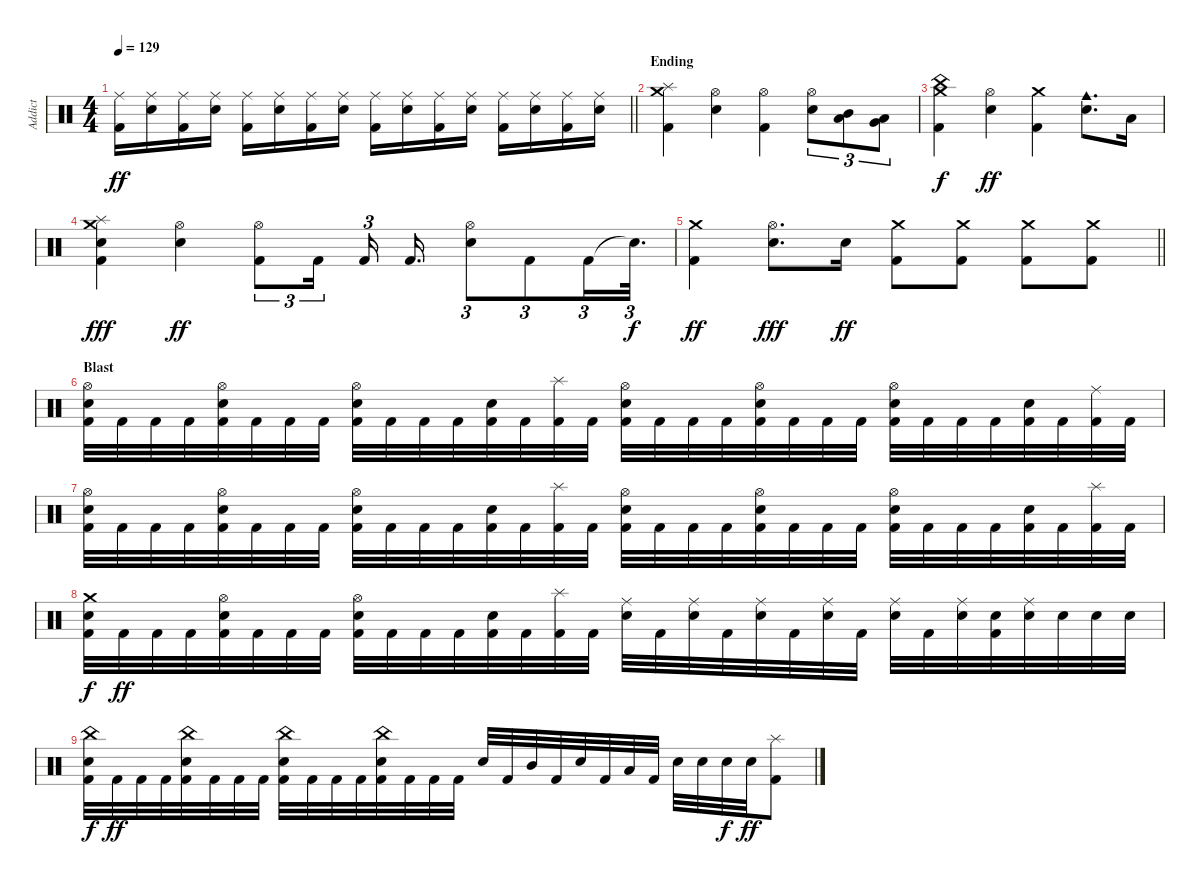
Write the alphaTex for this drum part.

\track ("Addict" "Addict") {instrument percussion}
\staff {score}
\articulation defaults
\ts (4 4)
\tempo 129
\clef neutral
\barLineRight lightlight
\ks c
("Kick (hit) 2" "Ride (middle)").16{dy ff} ("Snare (hit) 2" "Ride (middle)").16 ("Kick (hit) 2" "Ride (middle)").16 ("Snare (hit) 2" "Ride (middle)").16 ("Kick (hit) 2" "Ride (middle)").16 ("Snare (hit) 2" "Ride (middle)").16 ("Kick (hit) 2" "Ride (middle)").16 ("Snare (hit) 2" "Ride (middle)").16 ("Kick (hit) 2" "Ride (middle)").16 ("Snare (hit) 2" "Ride (middle)").16 ("Kick (hit) 2" "Ride (middle)").16 ("Snare (hit) 2" "Ride (middle)").16 ("Kick (hit) 2" "Ride (middle)").16 ("Snare (hit) 2" "Ride (middle)").16 ("Kick (hit) 2" "Ride (middle)").16 ("Snare (hit) 2" "Ride (middle)").16 |
\section ("" "Ending")
("Kick (hit) 2" "Crash medium (hit)" "Splash (hit)").4 ("Snare (hit) 2" "Hi-Hat (open)").4 ("Kick (hit) 2" "Hi-Hat (open)").4 ("Snare (hit) 2" "Hi-Hat (open)").8{tu (3 2)} ("Mid Tom (hit)" "Low Tom (hit)").8{tu (3 2)} ("Low Tom (hit)" "Very Low Tom (hit)").8{tu (3 2)} |
("Kick (hit) 2" "China (hit)" "Crash medium (hit)").4{dy f} ("Snare (hit) 2" "Hi-Hat (open)").4{dy ff} ("Kick (hit) 2" "Crash medium (hit)").4 ("Snare (hit) 2" "Cowbell medium (hit)").8{d} "Low Tom (hit)".16 |
("Kick (hit) 2" "Crash medium (hit)" "Splash (hit)" "Snare (hit)").4{dy fff} ("Snare (hit) 2" "Hi-Hat (open)").4{dy ff} ("Kick (hit) 2" "Hi-Hat (open)").8{tu (3 2)} "Kick (hit) 2".16{tu (3 2) beam splitsecondary} "Kick (hit) 2".16{tu (3 2)} "Kick (hit) 2".16{d} ("Snare (hit) 2" "Hi-Hat (open)").8{tu (3 2)} "Kick (hit) 2".8{tu (3 2)} "Kick (hit) 2".16{tu (3 2)} "Snare (hit)"{t}.32{d tu (3 2) dy f} |
\barLineRight lightlight
("Kick (hit) 2" "Crash medium (hit)").4{dy ff} ("Snare (hit) 2" "Hi-Hat (open)").8{d dy fff} "Snare (hit) 2".16{dy ff} ("Kick (hit) 2" "Crash medium (hit)").8 ("Kick (hit) 2" "Crash medium (hit)").8 ("Kick (hit) 2" "Crash medium (hit)").8 ("Kick (hit) 2" "Crash medium (hit)").8 |
\section ("" "Blast")
("Kick (hit) 2" "Snare (hit) 2" "Hi-Hat (open)").32 "Kick (hit) 2".32 "Kick (hit) 2".32 "Kick (hit) 2".32 ("Kick (hit) 2" "Snare (hit) 2" "Hi-Hat (open)").32 "Kick (hit) 2".32 "Kick (hit) 2".32 "Kick (hit) 2".32 ("Kick (hit) 2" "Snare (hit) 2" "Hi-Hat (open)").32 "Kick (hit) 2".32 "Kick (hit) 2".32 "Kick (hit) 2".32 ("Kick (hit) 2" "Snare (hit) 2").32 "Kick (hit) 2".32 ("Kick (hit) 2" "Splash (hit)").32 "Kick (hit) 2".32 ("Kick (hit) 2" "Snare (hit) 2" "Hi-Hat (open)").32 "Kick (hit) 2".32 "Kick (hit) 2".32 "Kick (hit) 2".32 ("Kick (hit) 2" "Snare (hit) 2" "Hi-Hat (open)").32 "Kick (hit) 2".32 "Kick (hit) 2".32 "Kick (hit) 2".32 ("Kick (hit) 2" "Snare (hit) 2" "Hi-Hat (open)").32 "Kick (hit) 2".32 "Kick (hit) 2".32 "Kick (hit) 2".32 ("Kick (hit) 2" "Snare (hit) 2").32 "Kick (hit) 2".32 ("Kick (hit) 2" "Ride (middle)").32 "Kick (hit) 2".32 |
("Kick (hit) 2" "Snare (hit) 2" "Hi-Hat (open)").32 "Kick (hit) 2".32 "Kick (hit) 2".32 "Kick (hit) 2".32 ("Kick (hit) 2" "Snare (hit) 2" "Hi-Hat (open)").32 "Kick (hit) 2".32 "Kick (hit) 2".32 "Kick (hit) 2".32 ("Kick (hit) 2" "Snare (hit) 2" "Hi-Hat (open)").32 "Kick (hit) 2".32 "Kick (hit) 2".32 "Kick (hit) 2".32 ("Kick (hit) 2" "Snare (hit) 2").32 "Kick (hit) 2".32 ("Kick (hit) 2" "Splash (hit)").32 "Kick (hit) 2".32 ("Kick (hit) 2" "Snare (hit) 2" "Hi-Hat (open)").32 "Kick (hit) 2".32 "Kick (hit) 2".32 "Kick (hit) 2".32 ("Kick (hit) 2" "Snare (hit) 2" "Hi-Hat (open)").32 "Kick (hit) 2".32 "Kick (hit) 2".32 "Kick (hit) 2".32 ("Kick (hit) 2" "Snare (hit) 2" "Hi-Hat (open)").32 "Kick (hit) 2".32 "Kick (hit) 2".32 "Kick (hit) 2".32 ("Kick (hit) 2" "Snare (hit) 2").32 "Kick (hit) 2".32 ("Kick (hit) 2" "Splash (hit)").32 "Kick (hit) 2".32 |
("Kick (hit) 2" "Snare (hit) 2" "Crash medium (hit)").32{dy f} "Kick (hit) 2".32{dy ff} "Kick (hit) 2".32 "Kick (hit) 2".32 ("Kick (hit) 2" "Snare (hit) 2" "Hi-Hat (open)").32 "Kick (hit) 2".32 "Kick (hit) 2".32 "Kick (hit) 2".32 ("Kick (hit) 2" "Snare (hit) 2" "Hi-Hat (open)").32 "Kick (hit) 2".32 "Kick (hit) 2".32 "Kick (hit) 2".32 ("Kick (hit) 2" "Snare (hit) 2").32 "Kick (hit) 2".32 ("Kick (hit) 2" "Splash (hit)").32 "Kick (hit) 2".32 ("Snare (hit) 2" "Ride (middle)").32 "Kick (hit) 2".32 ("Snare (hit) 2" "Ride (middle)").32 "Kick (hit) 2".32 ("Snare (hit) 2" "Ride (middle)").32 "Kick (hit) 2".32 ("Snare (hit) 2" "Ride (middle)").32 "Kick (hit) 2".32 ("Snare (hit) 2" "Ride (middle)").32 "Kick (hit) 2".32 ("Snare (hit) 2" "Ride (middle)").32 ("Kick (hit) 2" "Snare (hit) 2").32 ("Snare (hit) 2" "Ride (middle)").32 "Snare (hit) 2".32 "Snare (hit) 2".32 "Snare (hit) 2".32 |
("Kick (hit) 2" "Snare (hit) 2" "China (hit)").32{dy f} "Kick (hit) 2".32{dy ff} "Kick (hit) 2".32 "Kick (hit) 2".32 ("Kick (hit) 2" "Snare (hit) 2" "China (hit)").32 "Kick (hit) 2".32 "Kick (hit) 2".32 "Kick (hit) 2".32 ("Kick (hit) 2" "Snare (hit) 2" "China (hit)").32 "Kick (hit) 2".32 "Kick (hit) 2".32 "Kick (hit) 2".32 ("Kick (hit) 2" "Snare (hit) 2" "China (hit)").32 "Kick (hit) 2".32 "Kick (hit) 2".32 "Kick (hit) 2".32 "Snare (hit) 2".32 "Kick (hit) 2".32 "Mid Tom (hit)".32 "Kick (hit) 2".32 "Snare (hit) 2".32 "Kick (hit) 2".32 "Low Tom (hit)".32 "Kick (hit) 2".32 "Snare (hit) 2".32 "Snare (hit) 2".32 "Snare (hit) 2".32{dy f} "Snare (hit) 2".32{dy ff} ("Kick (hit) 2" "Splash (hit)").8
